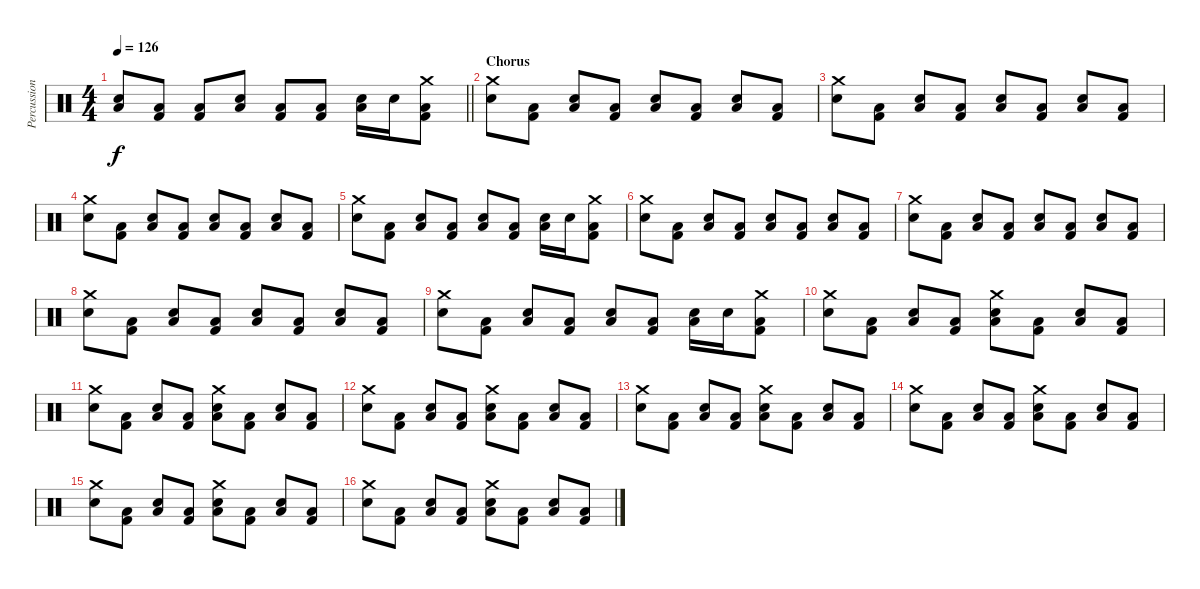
\track ("Percussion" "Percussion") {instrument percussion}
\staff {score}
\articulation defaults
\ts (4 4)
\tempo 126
\clef neutral
\barLineRight lightlight
\ks c
("Snare (hit) 2" "Low Floor Tom (hit)").8{dy f} ("Low Floor Tom (hit)" "Kick (hit) 2").8 ("Low Floor Tom (hit)" "Kick (hit) 2").8 ("Snare (hit) 2" "Low Floor Tom (hit)").8 ("Low Floor Tom (hit)" "Kick (hit) 2").8 ("Low Floor Tom (hit)" "Kick (hit) 2").8 ("Snare (hit) 2" "Low Floor Tom (hit)").16 "Snare (hit) 2".16 ("Crash medium (hit)" "Low Floor Tom (hit)" "Kick (hit) 2").8 |
\section ("" "Chorus")
("Crash medium (hit)" "Snare (hit) 2").8 ("Low Floor Tom (hit)" "Kick (hit) 2").8 ("Snare (hit) 2" "Low Floor Tom (hit)").8 ("Low Floor Tom (hit)" "Kick (hit) 2").8 ("Snare (hit) 2" "Low Floor Tom (hit)").8 ("Low Floor Tom (hit)" "Kick (hit) 2").8 ("Snare (hit) 2" "Low Floor Tom (hit)").8 ("Low Floor Tom (hit)" "Kick (hit) 2").8 |
("Crash medium (hit)" "Snare (hit) 2").8 ("Low Floor Tom (hit)" "Kick (hit) 2").8 ("Snare (hit) 2" "Low Floor Tom (hit)").8 ("Low Floor Tom (hit)" "Kick (hit) 2").8 ("Snare (hit) 2" "Low Floor Tom (hit)").8 ("Low Floor Tom (hit)" "Kick (hit) 2").8 ("Snare (hit) 2" "Low Floor Tom (hit)").8 ("Low Floor Tom (hit)" "Kick (hit) 2").8 |
("Crash medium (hit)" "Snare (hit) 2").8 ("Low Floor Tom (hit)" "Kick (hit) 2").8 ("Snare (hit) 2" "Low Floor Tom (hit)").8 ("Low Floor Tom (hit)" "Kick (hit) 2").8 ("Snare (hit) 2" "Low Floor Tom (hit)").8 ("Low Floor Tom (hit)" "Kick (hit) 2").8 ("Snare (hit) 2" "Low Floor Tom (hit)").8 ("Low Floor Tom (hit)" "Kick (hit) 2").8 |
("Crash medium (hit)" "Snare (hit) 2").8 ("Low Floor Tom (hit)" "Kick (hit) 2").8 ("Snare (hit) 2" "Low Floor Tom (hit)").8 ("Low Floor Tom (hit)" "Kick (hit) 2").8 ("Snare (hit) 2" "Low Floor Tom (hit)").8 ("Low Floor Tom (hit)" "Kick (hit) 2").8 ("Snare (hit) 2" "Low Floor Tom (hit)").16 "Snare (hit) 2".16 ("Crash medium (hit)" "Low Floor Tom (hit)" "Kick (hit) 2").8 |
("Crash medium (hit)" "Snare (hit) 2").8 ("Low Floor Tom (hit)" "Kick (hit) 2").8 ("Snare (hit) 2" "Low Floor Tom (hit)").8 ("Low Floor Tom (hit)" "Kick (hit) 2").8 ("Snare (hit) 2" "Low Floor Tom (hit)").8 ("Low Floor Tom (hit)" "Kick (hit) 2").8 ("Snare (hit) 2" "Low Floor Tom (hit)").8 ("Low Floor Tom (hit)" "Kick (hit) 2").8 |
("Crash medium (hit)" "Snare (hit) 2").8 ("Low Floor Tom (hit)" "Kick (hit) 2").8 ("Snare (hit) 2" "Low Floor Tom (hit)").8 ("Low Floor Tom (hit)" "Kick (hit) 2").8 ("Snare (hit) 2" "Low Floor Tom (hit)").8 ("Low Floor Tom (hit)" "Kick (hit) 2").8 ("Snare (hit) 2" "Low Floor Tom (hit)").8 ("Low Floor Tom (hit)" "Kick (hit) 2").8 |
("Crash medium (hit)" "Snare (hit) 2").8 ("Low Floor Tom (hit)" "Kick (hit) 2").8 ("Snare (hit) 2" "Low Floor Tom (hit)").8 ("Low Floor Tom (hit)" "Kick (hit) 2").8 ("Snare (hit) 2" "Low Floor Tom (hit)").8 ("Low Floor Tom (hit)" "Kick (hit) 2").8 ("Snare (hit) 2" "Low Floor Tom (hit)").8 ("Low Floor Tom (hit)" "Kick (hit) 2").8 |
("Crash medium (hit)" "Snare (hit) 2").8 ("Low Floor Tom (hit)" "Kick (hit) 2").8 ("Snare (hit) 2" "Low Floor Tom (hit)").8 ("Low Floor Tom (hit)" "Kick (hit) 2").8 ("Snare (hit) 2" "Low Floor Tom (hit)").8 ("Low Floor Tom (hit)" "Kick (hit) 2").8 ("Snare (hit) 2" "Low Floor Tom (hit)").16 "Snare (hit) 2".16 ("Crash medium (hit)" "Low Floor Tom (hit)" "Kick (hit) 2").8 |
("Crash medium (hit)" "Snare (hit) 2").8 ("Low Floor Tom (hit)" "Kick (hit) 2").8 ("Snare (hit) 2" "Low Floor Tom (hit)").8 ("Low Floor Tom (hit)" "Kick (hit) 2").8 ("Crash medium (hit)" "Snare (hit) 2" "Low Floor Tom (hit)").8 ("Low Floor Tom (hit)" "Kick (hit) 2").8 ("Snare (hit) 2" "Low Floor Tom (hit)").8 ("Low Floor Tom (hit)" "Kick (hit) 2").8 |
("Crash medium (hit)" "Snare (hit) 2").8 ("Low Floor Tom (hit)" "Kick (hit) 2").8 ("Snare (hit) 2" "Low Floor Tom (hit)").8 ("Low Floor Tom (hit)" "Kick (hit) 2").8 ("Crash medium (hit)" "Snare (hit) 2" "Low Floor Tom (hit)").8 ("Low Floor Tom (hit)" "Kick (hit) 2").8 ("Snare (hit) 2" "Low Floor Tom (hit)").8 ("Low Floor Tom (hit)" "Kick (hit) 2").8 |
("Crash medium (hit)" "Snare (hit) 2").8 ("Low Floor Tom (hit)" "Kick (hit) 2").8 ("Snare (hit) 2" "Low Floor Tom (hit)").8 ("Low Floor Tom (hit)" "Kick (hit) 2").8 ("Crash medium (hit)" "Snare (hit) 2" "Low Floor Tom (hit)").8 ("Low Floor Tom (hit)" "Kick (hit) 2").8 ("Snare (hit) 2" "Low Floor Tom (hit)").8 ("Low Floor Tom (hit)" "Kick (hit) 2").8 |
("Crash medium (hit)" "Snare (hit) 2").8 ("Low Floor Tom (hit)" "Kick (hit) 2").8 ("Snare (hit) 2" "Low Floor Tom (hit)").8 ("Low Floor Tom (hit)" "Kick (hit) 2").8 ("Crash medium (hit)" "Snare (hit) 2" "Low Floor Tom (hit)").8 ("Low Floor Tom (hit)" "Kick (hit) 2").8 ("Snare (hit) 2" "Low Floor Tom (hit)").8 ("Low Floor Tom (hit)" "Kick (hit) 2").8 |
("Crash medium (hit)" "Snare (hit) 2").8 ("Low Floor Tom (hit)" "Kick (hit) 2").8 ("Snare (hit) 2" "Low Floor Tom (hit)").8 ("Low Floor Tom (hit)" "Kick (hit) 2").8 ("Crash medium (hit)" "Snare (hit) 2" "Low Floor Tom (hit)").8 ("Low Floor Tom (hit)" "Kick (hit) 2").8 ("Snare (hit) 2" "Low Floor Tom (hit)").8 ("Low Floor Tom (hit)" "Kick (hit) 2").8 |
("Crash medium (hit)" "Snare (hit) 2").8 ("Low Floor Tom (hit)" "Kick (hit) 2").8 ("Snare (hit) 2" "Low Floor Tom (hit)").8 ("Low Floor Tom (hit)" "Kick (hit) 2").8 ("Crash medium (hit)" "Snare (hit) 2" "Low Floor Tom (hit)").8 ("Low Floor Tom (hit)" "Kick (hit) 2").8 ("Snare (hit) 2" "Low Floor Tom (hit)").8 ("Low Floor Tom (hit)" "Kick (hit) 2").8 |
("Crash medium (hit)" "Snare (hit) 2").8 ("Low Floor Tom (hit)" "Kick (hit) 2").8 ("Snare (hit) 2" "Low Floor Tom (hit)").8 ("Low Floor Tom (hit)" "Kick (hit) 2").8 ("Crash medium (hit)" "Snare (hit) 2" "Low Floor Tom (hit)").8 ("Low Floor Tom (hit)" "Kick (hit) 2").8 ("Snare (hit) 2" "Low Floor Tom (hit)").8 ("Low Floor Tom (hit)" "Kick (hit) 2").8
